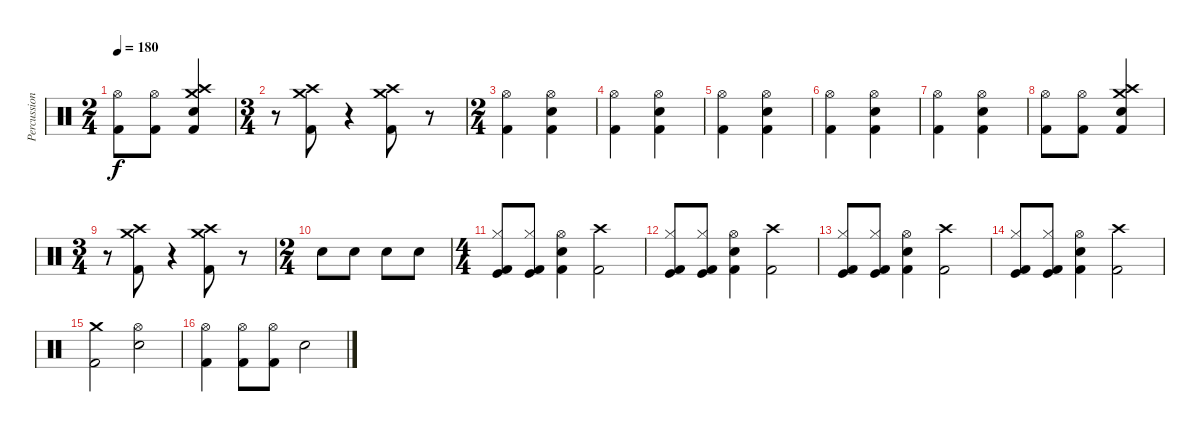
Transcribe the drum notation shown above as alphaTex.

\track ("Percussion" "Percussion") {instrument percussion}
\staff {score}
\articulation defaults
\ts (2 4)
\tempo 180
\clef neutral
\ks c
("Hi-Hat (open)" "Kick (hit) 2").8{dy f} ("Hi-Hat (open)" "Kick (hit) 2").8 ("Crash medium (hit)" "Crash high (hit)" "Snare (hit) 2" "Kick (hit) 2").4 |
\ts (3 4)
r.8 ("Crash medium (hit)" "Crash high (hit)" "Kick (hit) 2").8 r.4 ("Crash medium (hit)" "Crash high (hit)" "Kick (hit) 2").8 r.8 |
\ts (2 4)
("Hi-Hat (open)" "Kick (hit) 2").4 ("Hi-Hat (open)" "Snare (hit) 2" "Kick (hit) 2").4 |
("Hi-Hat (open)" "Kick (hit) 2").4 ("Hi-Hat (open)" "Snare (hit) 2" "Kick (hit) 2").4 |
("Hi-Hat (open)" "Kick (hit) 2").4 ("Hi-Hat (open)" "Snare (hit) 2" "Kick (hit) 2").4 |
("Hi-Hat (open)" "Kick (hit) 2").4 ("Hi-Hat (open)" "Snare (hit) 2" "Kick (hit) 2").4 |
("Hi-Hat (open)" "Kick (hit) 2").4 ("Hi-Hat (open)" "Snare (hit) 2" "Kick (hit) 2").4 |
("Hi-Hat (open)" "Kick (hit) 2").8 ("Hi-Hat (open)" "Kick (hit) 2").8 ("Crash medium (hit)" "Crash high (hit)" "Snare (hit) 2" "Kick (hit) 2").4 |
\ts (3 4)
r.8 ("Crash medium (hit)" "Crash high (hit)" "Kick (hit) 2").8 r.4 ("Crash medium (hit)" "Crash high (hit)" "Kick (hit) 2").8 r.8 |
\ts (2 4)
"Snare (hit) 2".8 "Snare (hit) 2".8 "Snare (hit) 2".8 "Snare (hit) 2".8 |
\ts (4 4)
("Hi-Hat (closed)" "Kick (hit)" "Kick (hit) 2").8 ("Hi-Hat (closed)" "Kick (hit)" "Kick (hit) 2").8 ("Hi-Hat (open)" "Snare (hit) 2" "Kick (hit) 2").4 ("Crash high (hit)" "Kick (hit) 2").2 |
("Hi-Hat (closed)" "Kick (hit)" "Kick (hit) 2").8 ("Hi-Hat (closed)" "Kick (hit)" "Kick (hit) 2").8 ("Hi-Hat (open)" "Snare (hit) 2" "Kick (hit) 2").4 ("Crash high (hit)" "Kick (hit) 2").2 |
("Hi-Hat (closed)" "Kick (hit)" "Kick (hit) 2").8 ("Hi-Hat (closed)" "Kick (hit)" "Kick (hit) 2").8 ("Hi-Hat (open)" "Snare (hit) 2" "Kick (hit) 2").4 ("Crash high (hit)" "Kick (hit) 2").2 |
("Hi-Hat (closed)" "Kick (hit)" "Kick (hit) 2").8 ("Hi-Hat (closed)" "Kick (hit)" "Kick (hit) 2").8 ("Hi-Hat (open)" "Snare (hit) 2" "Kick (hit) 2").4 ("Crash high (hit)" "Kick (hit) 2").2 |
("Crash medium (hit)" "Kick (hit) 2").2 ("Hi-Hat (open)" "Snare (hit) 2").2 |
("Hi-Hat (open)" "Kick (hit) 2").4 ("Hi-Hat (open)" "Kick (hit) 2").8 ("Hi-Hat (open)" "Kick (hit) 2").8 "Snare (hit) 2".2
